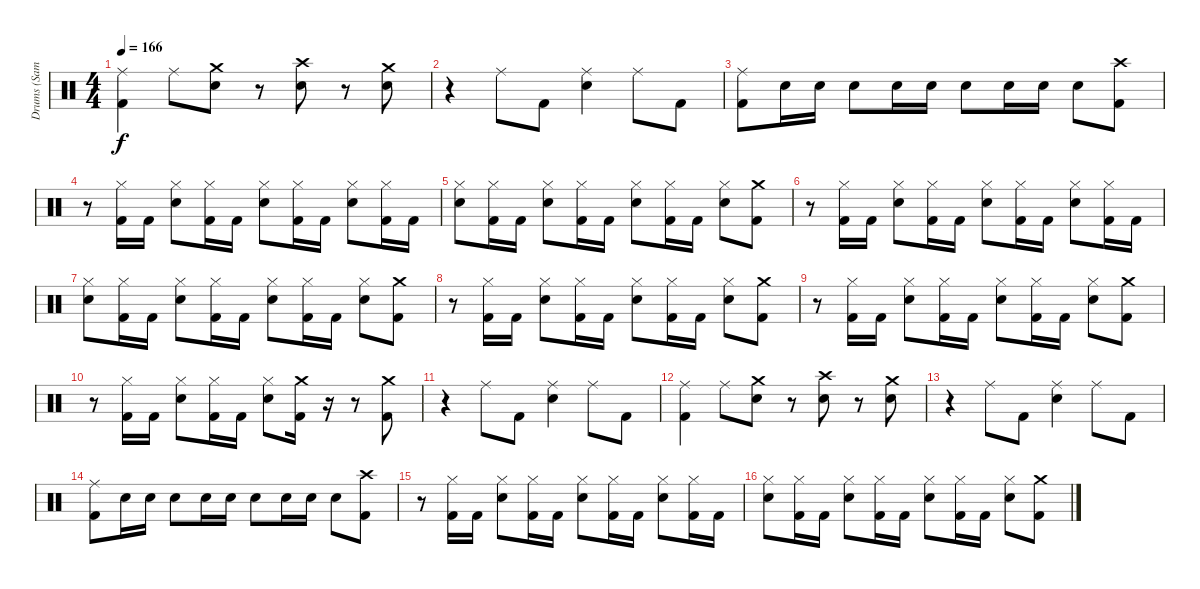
\track ("Drums (Samuelson)" "Drums (Sam") {instrument percussion}
\staff
\articulation defaults
\ts (4 4)
\tempo 166
\clef neutral
\ks c
("Ride (middle)" "Kick (hit) 2").4{dy f} "Ride (middle)".8 ("Crash medium (hit)" "Electric Snare (hit)").8 r.8 ("Crash high (hit)" "Electric Snare (hit)").8 r.8 ("Crash medium (hit)" "Electric Snare (hit)").8 |
r.4 "Ride (middle)".8 "Kick (hit) 2".8 ("Ride (middle)" "Electric Snare (hit)").4 "Ride (middle)".8 "Kick (hit) 2".8 |
("Ride (middle)" "Kick (hit) 2").8 "Electric Snare (hit)".16 "Electric Snare (hit)".16 "Electric Snare (hit)".8 "Electric Snare (hit)".16 "Electric Snare (hit)".16 "Electric Snare (hit)".8 "Electric Snare (hit)".16 "Electric Snare (hit)".16 "Electric Snare (hit)".8 ("Crash high (hit)" "Kick (hit) 2").8 |
r.8 ("Hi-Hat (closed)" "Kick (hit) 2").16 "Kick (hit) 2".16 ("Hi-Hat (closed)" "Electric Snare (hit)").8 ("Hi-Hat (closed)" "Kick (hit) 2").16 "Kick (hit) 2".16 ("Hi-Hat (closed)" "Electric Snare (hit)").8 ("Hi-Hat (closed)" "Kick (hit) 2").16 "Kick (hit) 2".16 ("Hi-Hat (closed)" "Electric Snare (hit)").8 ("Hi-Hat (closed)" "Kick (hit) 2").16 "Kick (hit) 2".16 |
("Hi-Hat (closed)" "Electric Snare (hit)").8 ("Hi-Hat (closed)" "Kick (hit) 2").16 "Kick (hit) 2".16 ("Hi-Hat (closed)" "Electric Snare (hit)").8 ("Hi-Hat (closed)" "Kick (hit) 2").16 "Kick (hit) 2".16 ("Hi-Hat (closed)" "Electric Snare (hit)").8 ("Hi-Hat (closed)" "Kick (hit) 2").16 "Kick (hit) 2".16 ("Hi-Hat (closed)" "Electric Snare (hit)").8 ("Crash medium (hit)" "Kick (hit) 2").8 |
r.8 ("Hi-Hat (closed)" "Kick (hit) 2").16 "Kick (hit) 2".16 ("Hi-Hat (closed)" "Electric Snare (hit)").8 ("Hi-Hat (closed)" "Kick (hit) 2").16 "Kick (hit) 2".16 ("Hi-Hat (closed)" "Electric Snare (hit)").8 ("Hi-Hat (closed)" "Kick (hit) 2").16 "Kick (hit) 2".16 ("Hi-Hat (closed)" "Electric Snare (hit)").8 ("Hi-Hat (closed)" "Kick (hit) 2").16 "Kick (hit) 2".16 |
("Hi-Hat (closed)" "Electric Snare (hit)").8 ("Hi-Hat (closed)" "Kick (hit) 2").16 "Kick (hit) 2".16 ("Hi-Hat (closed)" "Electric Snare (hit)").8 ("Hi-Hat (closed)" "Kick (hit) 2").16 "Kick (hit) 2".16 ("Hi-Hat (closed)" "Electric Snare (hit)").8 ("Hi-Hat (closed)" "Kick (hit) 2").16 "Kick (hit) 2".16 ("Hi-Hat (closed)" "Electric Snare (hit)").8 ("Crash medium (hit)" "Kick (hit) 2").8 |
r.8 ("Hi-Hat (closed)" "Kick (hit) 2").16 "Kick (hit) 2".16 ("Hi-Hat (closed)" "Electric Snare (hit)").8 ("Hi-Hat (closed)" "Kick (hit) 2").16 "Kick (hit) 2".16 ("Hi-Hat (closed)" "Electric Snare (hit)").8 ("Hi-Hat (closed)" "Kick (hit) 2").16 "Kick (hit) 2".16 ("Hi-Hat (closed)" "Electric Snare (hit)").8 ("Crash medium (hit)" "Kick (hit) 2").8 |
r.8 ("Hi-Hat (closed)" "Kick (hit) 2").16 "Kick (hit) 2".16 ("Hi-Hat (closed)" "Electric Snare (hit)").8 ("Hi-Hat (closed)" "Kick (hit) 2").16 "Kick (hit) 2".16 ("Hi-Hat (closed)" "Electric Snare (hit)").8 ("Hi-Hat (closed)" "Kick (hit) 2").16 "Kick (hit) 2".16 ("Hi-Hat (closed)" "Electric Snare (hit)").8 ("Crash medium (hit)" "Kick (hit) 2").8 |
r.8 ("Hi-Hat (closed)" "Kick (hit) 2").16 "Kick (hit) 2".16 ("Hi-Hat (closed)" "Electric Snare (hit)").8 ("Hi-Hat (closed)" "Kick (hit) 2").16 "Kick (hit) 2".16 ("Hi-Hat (closed)" "Electric Snare (hit)").8 ("Crash medium (hit)" "Kick (hit) 2").16 r.16 r.8 ("Crash medium (hit)" "Kick (hit) 2").8 |
r.4 "Ride (middle)".8 "Kick (hit) 2".8 ("Ride (middle)" "Electric Snare (hit)").4 "Ride (middle)".8 "Kick (hit) 2".8 |
("Ride (middle)" "Kick (hit) 2").4 "Ride (middle)".8 ("Crash medium (hit)" "Electric Snare (hit)").8 r.8 ("Crash high (hit)" "Electric Snare (hit)").8 r.8 ("Crash medium (hit)" "Electric Snare (hit)").8 |
r.4 "Ride (middle)".8 "Kick (hit) 2".8 ("Ride (middle)" "Electric Snare (hit)").4 "Ride (middle)".8 "Kick (hit) 2".8 |
("Ride (middle)" "Kick (hit) 2").8 "Electric Snare (hit)".16 "Electric Snare (hit)".16 "Electric Snare (hit)".8 "Electric Snare (hit)".16 "Electric Snare (hit)".16 "Electric Snare (hit)".8 "Electric Snare (hit)".16 "Electric Snare (hit)".16 "Electric Snare (hit)".8 ("Crash high (hit)" "Kick (hit) 2").8 |
r.8 ("Hi-Hat (closed)" "Kick (hit) 2").16 "Kick (hit) 2".16 ("Hi-Hat (closed)" "Electric Snare (hit)").8 ("Hi-Hat (closed)" "Kick (hit) 2").16 "Kick (hit) 2".16 ("Hi-Hat (closed)" "Electric Snare (hit)").8 ("Hi-Hat (closed)" "Kick (hit) 2").16 "Kick (hit) 2".16 ("Hi-Hat (closed)" "Electric Snare (hit)").8 ("Hi-Hat (closed)" "Kick (hit) 2").16 "Kick (hit) 2".16 |
("Hi-Hat (closed)" "Electric Snare (hit)").8 ("Hi-Hat (closed)" "Kick (hit) 2").16 "Kick (hit) 2".16 ("Hi-Hat (closed)" "Electric Snare (hit)").8 ("Hi-Hat (closed)" "Kick (hit) 2").16 "Kick (hit) 2".16 ("Hi-Hat (closed)" "Electric Snare (hit)").8 ("Hi-Hat (closed)" "Kick (hit) 2").16 "Kick (hit) 2".16 ("Hi-Hat (closed)" "Electric Snare (hit)").8 ("Crash medium (hit)" "Kick (hit) 2").8
